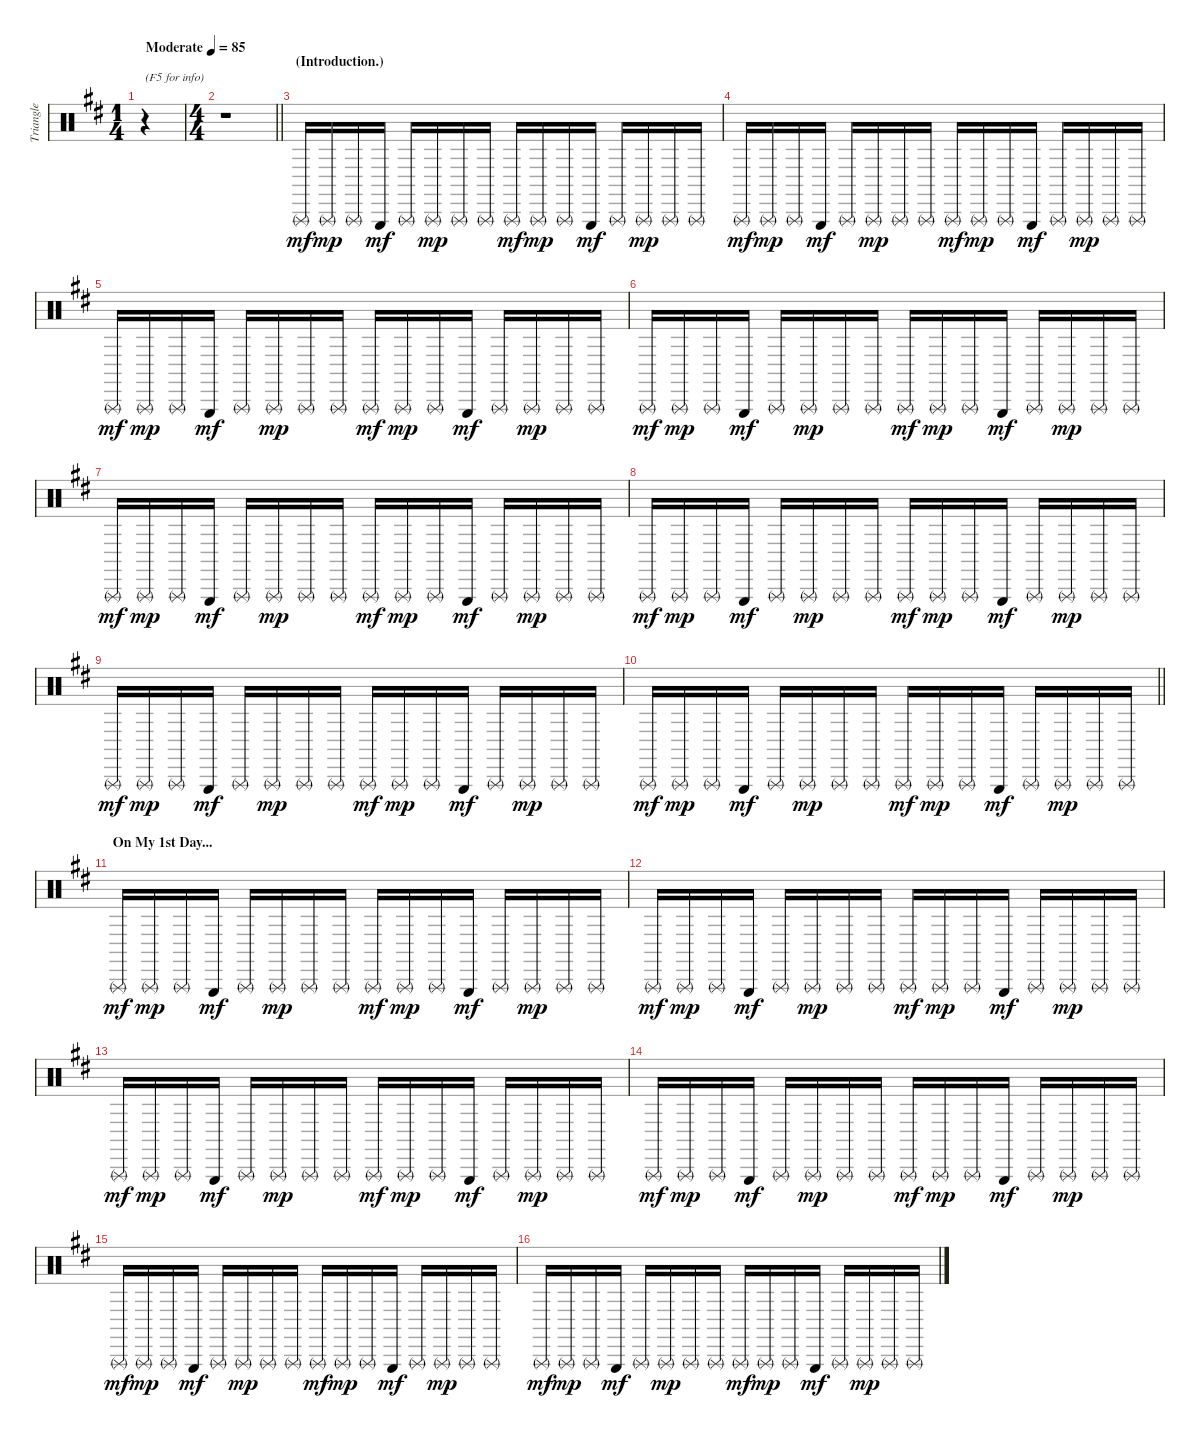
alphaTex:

\track ("Triangle" "Triangle") {instrument percussion}
\staff {score}
\articulation defaults
\ts (1 4)
\tempo (85 "Moderate")
\clef neutral
\ks bminor
r.4{txt "(F5 for info)" dy mf} |
\ts (4 4)
\barLineRight lightlight
r.1 |
\section ("" "(Introduction.)")
"Triangle (rnute)".16 "Triangle (rnute)".16{dy mp} "Triangle (rnute)".16 "Triangle (hit)".16{dy mf} "Triangle (rnute)".16 "Triangle (rnute)".16{dy mp} "Triangle (rnute)".16 "Triangle (rnute)".16 "Triangle (rnute)".16{dy mf} "Triangle (rnute)".16{dy mp} "Triangle (rnute)".16 "Triangle (hit)".16{dy mf} "Triangle (rnute)".16 "Triangle (rnute)".16{dy mp} "Triangle (rnute)".16 "Triangle (rnute)".16 |
"Triangle (rnute)".16{dy mf} "Triangle (rnute)".16{dy mp} "Triangle (rnute)".16 "Triangle (hit)".16{dy mf} "Triangle (rnute)".16 "Triangle (rnute)".16{dy mp} "Triangle (rnute)".16 "Triangle (rnute)".16 "Triangle (rnute)".16{dy mf} "Triangle (rnute)".16{dy mp} "Triangle (rnute)".16 "Triangle (hit)".16{dy mf} "Triangle (rnute)".16 "Triangle (rnute)".16{dy mp} "Triangle (rnute)".16 "Triangle (rnute)".16 |
"Triangle (rnute)".16{dy mf} "Triangle (rnute)".16{dy mp} "Triangle (rnute)".16 "Triangle (hit)".16{dy mf} "Triangle (rnute)".16 "Triangle (rnute)".16{dy mp} "Triangle (rnute)".16 "Triangle (rnute)".16 "Triangle (rnute)".16{dy mf} "Triangle (rnute)".16{dy mp} "Triangle (rnute)".16 "Triangle (hit)".16{dy mf} "Triangle (rnute)".16 "Triangle (rnute)".16{dy mp} "Triangle (rnute)".16 "Triangle (rnute)".16 |
"Triangle (rnute)".16{dy mf} "Triangle (rnute)".16{dy mp} "Triangle (rnute)".16 "Triangle (hit)".16{dy mf} "Triangle (rnute)".16 "Triangle (rnute)".16{dy mp} "Triangle (rnute)".16 "Triangle (rnute)".16 "Triangle (rnute)".16{dy mf} "Triangle (rnute)".16{dy mp} "Triangle (rnute)".16 "Triangle (hit)".16{dy mf} "Triangle (rnute)".16 "Triangle (rnute)".16{dy mp} "Triangle (rnute)".16 "Triangle (rnute)".16 |
"Triangle (rnute)".16{dy mf} "Triangle (rnute)".16{dy mp} "Triangle (rnute)".16 "Triangle (hit)".16{dy mf} "Triangle (rnute)".16 "Triangle (rnute)".16{dy mp} "Triangle (rnute)".16 "Triangle (rnute)".16 "Triangle (rnute)".16{dy mf} "Triangle (rnute)".16{dy mp} "Triangle (rnute)".16 "Triangle (hit)".16{dy mf} "Triangle (rnute)".16 "Triangle (rnute)".16{dy mp} "Triangle (rnute)".16 "Triangle (rnute)".16 |
"Triangle (rnute)".16{dy mf} "Triangle (rnute)".16{dy mp} "Triangle (rnute)".16 "Triangle (hit)".16{dy mf} "Triangle (rnute)".16 "Triangle (rnute)".16{dy mp} "Triangle (rnute)".16 "Triangle (rnute)".16 "Triangle (rnute)".16{dy mf} "Triangle (rnute)".16{dy mp} "Triangle (rnute)".16 "Triangle (hit)".16{dy mf} "Triangle (rnute)".16 "Triangle (rnute)".16{dy mp} "Triangle (rnute)".16 "Triangle (rnute)".16 |
"Triangle (rnute)".16{dy mf} "Triangle (rnute)".16{dy mp} "Triangle (rnute)".16 "Triangle (hit)".16{dy mf} "Triangle (rnute)".16 "Triangle (rnute)".16{dy mp} "Triangle (rnute)".16 "Triangle (rnute)".16 "Triangle (rnute)".16{dy mf} "Triangle (rnute)".16{dy mp} "Triangle (rnute)".16 "Triangle (hit)".16{dy mf} "Triangle (rnute)".16 "Triangle (rnute)".16{dy mp} "Triangle (rnute)".16 "Triangle (rnute)".16 |
\barLineRight lightlight "Triangle (rnute)".16{dy mf} "Triangle (rnute)".16{dy mp} "Triangle (rnute)".16 "Triangle (hit)".16{dy mf} "Triangle (rnute)".16 "Triangle (rnute)".16{dy mp} "Triangle (rnute)".16 "Triangle (rnute)".16 "Triangle (rnute)".16{dy mf} "Triangle (rnute)".16{dy mp} "Triangle (rnute)".16 "Triangle (hit)".16{dy mf} "Triangle (rnute)".16 "Triangle (rnute)".16{dy mp} "Triangle (rnute)".16 "Triangle (rnute)".16
|
\section ("" "On My 1st Day...")
"Triangle (rnute)".16{dy mf} "Triangle (rnute)".16{dy mp} "Triangle (rnute)".16 "Triangle (hit)".16{dy mf} "Triangle (rnute)".16 "Triangle (rnute)".16{dy mp} "Triangle (rnute)".16 "Triangle (rnute)".16 "Triangle (rnute)".16{dy mf} "Triangle (rnute)".16{dy mp} "Triangle (rnute)".16 "Triangle (hit)".16{dy mf} "Triangle (rnute)".16 "Triangle (rnute)".16{dy mp} "Triangle (rnute)".16 "Triangle (rnute)".16 |
"Triangle (rnute)".16{dy mf} "Triangle (rnute)".16{dy mp} "Triangle (rnute)".16 "Triangle (hit)".16{dy mf} "Triangle (rnute)".16 "Triangle (rnute)".16{dy mp} "Triangle (rnute)".16 "Triangle (rnute)".16 "Triangle (rnute)".16{dy mf} "Triangle (rnute)".16{dy mp} "Triangle (rnute)".16 "Triangle (hit)".16{dy mf} "Triangle (rnute)".16 "Triangle (rnute)".16{dy mp} "Triangle (rnute)".16 "Triangle (rnute)".16 |
"Triangle (rnute)".16{dy mf} "Triangle (rnute)".16{dy mp} "Triangle (rnute)".16 "Triangle (hit)".16{dy mf} "Triangle (rnute)".16 "Triangle (rnute)".16{dy mp} "Triangle (rnute)".16 "Triangle (rnute)".16 "Triangle (rnute)".16{dy mf} "Triangle (rnute)".16{dy mp} "Triangle (rnute)".16 "Triangle (hit)".16{dy mf} "Triangle (rnute)".16 "Triangle (rnute)".16{dy mp} "Triangle (rnute)".16 "Triangle (rnute)".16 |
"Triangle (rnute)".16{dy mf} "Triangle (rnute)".16{dy mp} "Triangle (rnute)".16 "Triangle (hit)".16{dy mf} "Triangle (rnute)".16 "Triangle (rnute)".16{dy mp} "Triangle (rnute)".16 "Triangle (rnute)".16 "Triangle (rnute)".16{dy mf} "Triangle (rnute)".16{dy mp} "Triangle (rnute)".16 "Triangle (hit)".16{dy mf} "Triangle (rnute)".16 "Triangle (rnute)".16{dy mp} "Triangle (rnute)".16 "Triangle (rnute)".16 |
"Triangle (rnute)".16{dy mf} "Triangle (rnute)".16{dy mp} "Triangle (rnute)".16 "Triangle (hit)".16{dy mf} "Triangle (rnute)".16 "Triangle (rnute)".16{dy mp} "Triangle (rnute)".16 "Triangle (rnute)".16 "Triangle (rnute)".16{dy mf} "Triangle (rnute)".16{dy mp} "Triangle (rnute)".16 "Triangle (hit)".16{dy mf} "Triangle (rnute)".16 "Triangle (rnute)".16{dy mp} "Triangle (rnute)".16 "Triangle (rnute)".16 |
"Triangle (rnute)".16{dy mf} "Triangle (rnute)".16{dy mp} "Triangle (rnute)".16 "Triangle (hit)".16{dy mf} "Triangle (rnute)".16 "Triangle (rnute)".16{dy mp} "Triangle (rnute)".16 "Triangle (rnute)".16 "Triangle (rnute)".16{dy mf} "Triangle (rnute)".16{dy mp} "Triangle (rnute)".16 "Triangle (hit)".16{dy mf} "Triangle (rnute)".16 "Triangle (rnute)".16{dy mp} "Triangle (rnute)".16 "Triangle (rnute)".16
